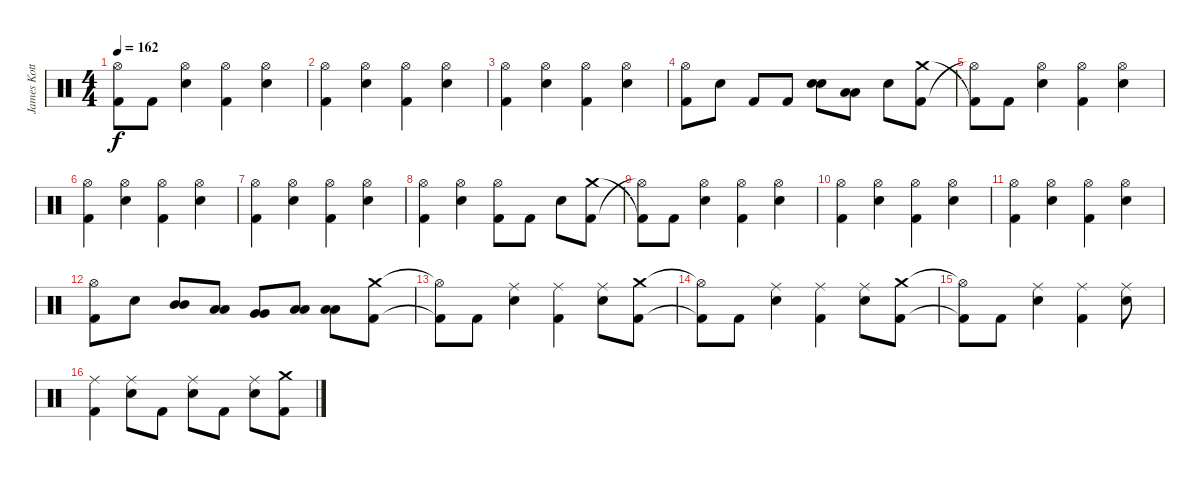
\track ("James Kottak" "James Kott") {instrument percussion}
\staff {score}
\articulation defaults
\ts (4 4)
\tempo 162
\clef neutral
\ks c
("Hi-Hat (open)"{t} "Kick (hit) 2"{t}).8{dy f} "Kick (hit) 2".8 ("Hi-Hat (open)" "Snare (hit) 2").4 ("Hi-Hat (open)" "Kick (hit) 2").4 ("Hi-Hat (open)" "Snare (hit) 2").4 |
("Hi-Hat (open)" "Kick (hit) 2").4 ("Hi-Hat (open)" "Snare (hit) 2").4 ("Hi-Hat (open)" "Kick (hit) 2").4 ("Hi-Hat (open)" "Snare (hit) 2").4 |
("Hi-Hat (open)" "Kick (hit) 2").4 ("Hi-Hat (open)" "Snare (hit) 2").4 ("Hi-Hat (open)" "Kick (hit) 2").4 ("Hi-Hat (open)" "Snare (hit) 2").4 |
("Hi-Hat (open)" "Kick (hit) 2").8 "Snare (hit) 2".8 "Kick (hit) 2".8 "Kick (hit) 2".8 ("Snare (hit) 2" "Snare (hit) 2").8{bd 240} ("Low Tom (hit)" "Low Tom (hit)").8{bd 240} "Snare (hit) 2".8 ("Kick (hit) 2" "Crash medium (hit)").8 |
("Hi-Hat (open)"{t} "Kick (hit) 2"{t}).8 "Kick (hit) 2".8 ("Hi-Hat (open)" "Snare (hit) 2").4 ("Hi-Hat (open)" "Kick (hit) 2").4 ("Hi-Hat (open)" "Snare (hit) 2").4 |
("Hi-Hat (open)" "Kick (hit) 2").4 ("Hi-Hat (open)" "Snare (hit) 2").4 ("Hi-Hat (open)" "Kick (hit) 2").4 ("Hi-Hat (open)" "Snare (hit) 2").4 |
("Hi-Hat (open)" "Kick (hit) 2").4 ("Hi-Hat (open)" "Snare (hit) 2").4 ("Hi-Hat (open)" "Kick (hit) 2").4 ("Hi-Hat (open)" "Snare (hit) 2").4 |
("Hi-Hat (open)" "Kick (hit) 2").4 ("Hi-Hat (open)" "Snare (hit) 2").4 ("Hi-Hat (open)" "Kick (hit) 2").8 "Kick (hit) 2".8 "Snare (hit) 2".8 ("Kick (hit) 2" "Crash medium (hit)").8 |
("Hi-Hat (open)"{t} "Kick (hit) 2"{t}).8 "Kick (hit) 2".8 ("Hi-Hat (open)" "Snare (hit) 2").4 ("Hi-Hat (open)" "Kick (hit) 2").4 ("Hi-Hat (open)" "Snare (hit) 2").4 |
("Hi-Hat (open)" "Kick (hit) 2").4 ("Hi-Hat (open)" "Snare (hit) 2").4 ("Hi-Hat (open)" "Kick (hit) 2").4 ("Hi-Hat (open)" "Snare (hit) 2").4 |
("Hi-Hat (open)" "Kick (hit) 2").4 ("Hi-Hat (open)" "Snare (hit) 2").4 ("Hi-Hat (open)" "Kick (hit) 2").4 ("Hi-Hat (open)" "Snare (hit) 2").4 |
("Hi-Hat (open)" "Kick (hit) 2").8 "Snare (hit) 2".8 ("Mid Tom (hit)" "Mid Tom (hit)").8{bd 240} ("Low Tom (hit)" "Low Tom (hit)").8{bd 240} ("Very Low Tom (hit)" "Very Low Tom (hit)").8{bd 240} ("Low Floor Tom (hit)" "Low Floor Tom (hit)").8{bd 240} ("Low Floor Tom (hit)" "Low Floor Tom (hit)").8{bd 240} ("Crash medium (hit)" "Kick (hit) 2").8 |
("Hi-Hat (open)"{t} "Kick (hit) 2"{t}).8 "Kick (hit) 2".8 ("Ride (middle)" "Snare (hit) 2").4 ("Ride (middle)" "Kick (hit) 2").4 ("Ride (middle)" "Snare (hit) 2").8 ("Crash medium (hit)" "Kick (hit) 2").8 |
("Hi-Hat (open)"{t} "Kick (hit) 2"{t}).8 "Kick (hit) 2".8 ("Ride (middle)" "Snare (hit) 2").4 ("Ride (middle)" "Kick (hit) 2").4 ("Ride (middle)" "Snare (hit) 2").8 ("Crash medium (hit)" "Kick (hit) 2").8 |
("Hi-Hat (open)"{t} "Kick (hit) 2"{t}).8 "Kick (hit) 2".8 ("Ride (middle)" "Snare (hit) 2").4 ("Ride (middle)" "Kick (hit) 2").4 ("Ride (middle)" "Snare (hit) 2").8 |
("Ride (middle)" "Kick (hit) 2").4 ("Ride (middle)" "Snare (hit) 2").8 "Kick (hit) 2".8 ("Ride (middle)" "Snare (hit) 2").8 "Kick (hit) 2".8 ("Ride (middle)" "Snare (hit) 2").8 ("Crash medium (hit)" "Kick (hit) 2").8
